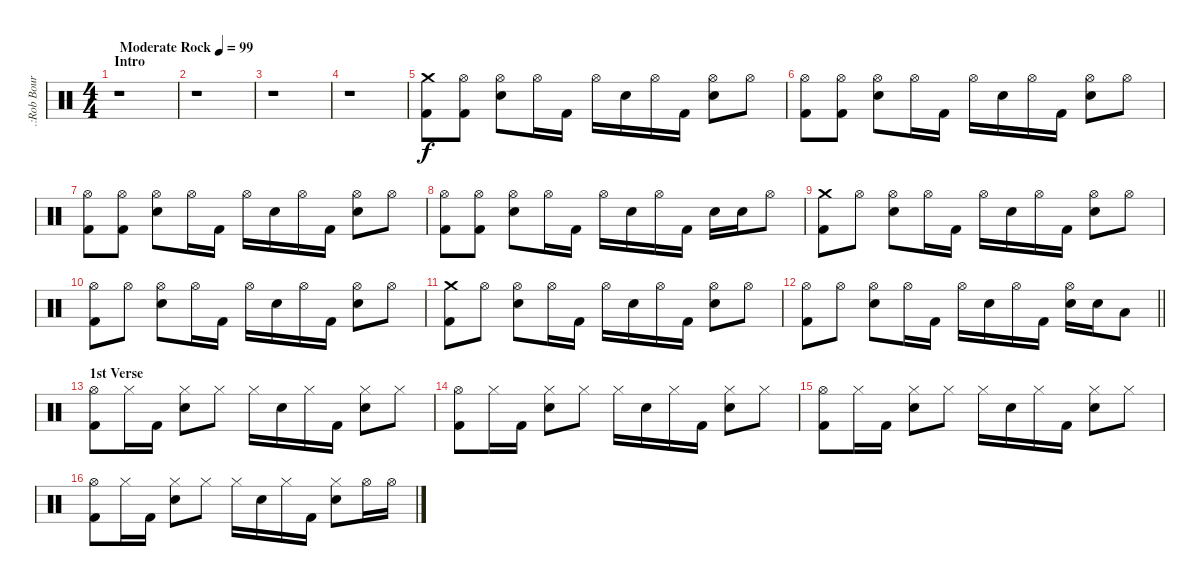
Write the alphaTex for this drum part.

\track (".:Rob Bourdon - Drums:." ".:Rob Bour") {instrument percussion}
\staff {score}
\articulation defaults
\ts (4 4)
\section ("" "Intro")
\tempo (99 "Moderate Rock")
\clef neutral
\ks c
r.1{dy f} |
r.1 |
r.1 |
r.1 |
("Crash medium (hit)" "Kick (hit) 2").8 ("Hi-Hat (open)" "Kick (hit) 2").8 ("Hi-Hat (open)" "Electric Snare (hit)").8 "Hi-Hat (open)".16 "Kick (hit) 2".16 "Hi-Hat (open)".16 "Electric Snare (hit)".16 "Hi-Hat (open)".16 "Kick (hit) 2".16 ("Hi-Hat (open)" "Electric Snare (hit)").8 "Hi-Hat (open)".8 |
("Hi-Hat (open)" "Kick (hit) 2").8 ("Hi-Hat (open)" "Kick (hit) 2").8 ("Hi-Hat (open)" "Electric Snare (hit)").8 "Hi-Hat (open)".16 "Kick (hit) 2".16 "Hi-Hat (open)".16 "Electric Snare (hit)".16 "Hi-Hat (open)".16 "Kick (hit) 2".16 ("Hi-Hat (open)" "Electric Snare (hit)").8 "Hi-Hat (open)".8 |
("Hi-Hat (open)" "Kick (hit) 2").8 ("Hi-Hat (open)" "Kick (hit) 2").8 ("Hi-Hat (open)" "Electric Snare (hit)").8 "Hi-Hat (open)".16 "Kick (hit) 2".16 "Hi-Hat (open)".16 "Electric Snare (hit)".16 "Hi-Hat (open)".16 "Kick (hit) 2".16 ("Hi-Hat (open)" "Electric Snare (hit)").8 "Hi-Hat (open)".8 |
("Hi-Hat (open)" "Kick (hit) 2").8 ("Hi-Hat (open)" "Kick (hit) 2").8 ("Hi-Hat (open)" "Electric Snare (hit)").8 "Hi-Hat (open)".16 "Kick (hit) 2".16 "Hi-Hat (open)".16 "Electric Snare (hit)".16 "Hi-Hat (open)".16 "Kick (hit) 2".16 "Electric Snare (hit)".16 "Electric Snare (hit)".16 "Hi-Hat (open)".8 |
("Crash medium (hit)" "Kick (hit) 2").8 "Hi-Hat (open)".8 ("Hi-Hat (open)" "Electric Snare (hit)").8 "Hi-Hat (open)".16 "Kick (hit) 2".16 "Hi-Hat (open)".16 "Electric Snare (hit)".16 "Hi-Hat (open)".16 "Kick (hit) 2".16 ("Hi-Hat (open)" "Electric Snare (hit)").8 "Hi-Hat (open)".8 |
("Hi-Hat (open)" "Kick (hit) 2").8 "Hi-Hat (open)".8 ("Hi-Hat (open)" "Electric Snare (hit)").8 "Hi-Hat (open)".16 "Kick (hit) 2".16 "Hi-Hat (open)".16 "Electric Snare (hit)".16 "Hi-Hat (open)".16 "Kick (hit) 2".16 ("Hi-Hat (open)" "Electric Snare (hit)").8 "Hi-Hat (open)".8 |
("Crash medium (hit)" "Kick (hit) 2").8 "Hi-Hat (open)".8 ("Hi-Hat (open)" "Electric Snare (hit)").8 "Hi-Hat (open)".16 "Kick (hit) 2".16 "Hi-Hat (open)".16 "Electric Snare (hit)".16 "Hi-Hat (open)".16 "Kick (hit) 2".16 ("Hi-Hat (open)" "Electric Snare (hit)").8 "Hi-Hat (open)".8 |
\barLineRight lightlight
("Hi-Hat (open)" "Kick (hit) 2").8 "Hi-Hat (open)".8 ("Hi-Hat (open)" "Electric Snare (hit)").8 "Hi-Hat (open)".16 "Kick (hit) 2".16 "Hi-Hat (open)".16 "Electric Snare (hit)".16 "Hi-Hat (open)".16 "Kick (hit) 2".16 ("Hi-Hat (open)" "Electric Snare (hit)").16 "Electric Snare (hit)".16 "Low Tom (hit)".8 |
\section ("" "1st Verse")
("Hi-Hat (open)" "Kick (hit) 2").8 "Hi-Hat (closed)".16 "Kick (hit) 2".16 ("Hi-Hat (closed)" "Electric Snare (hit)").8 "Hi-Hat (closed)".8 "Hi-Hat (closed)".16 "Electric Snare (hit)".16 "Hi-Hat (closed)".16 "Kick (hit) 2".16 ("Hi-Hat (closed)" "Electric Snare (hit)").8 "Hi-Hat (closed)".8 |
("Hi-Hat (open)" "Kick (hit) 2").8 "Hi-Hat (closed)".16 "Kick (hit) 2".16 ("Hi-Hat (closed)" "Electric Snare (hit)").8 "Hi-Hat (closed)".8 "Hi-Hat (closed)".16 "Electric Snare (hit)".16 "Hi-Hat (closed)".16 "Kick (hit) 2".16 ("Hi-Hat (closed)" "Electric Snare (hit)").8 "Hi-Hat (closed)".8 |
("Hi-Hat (open)" "Kick (hit) 2").8 "Hi-Hat (closed)".16 "Kick (hit) 2".16 ("Hi-Hat (closed)" "Electric Snare (hit)").8 "Hi-Hat (closed)".8 "Hi-Hat (closed)".16 "Electric Snare (hit)".16 "Hi-Hat (closed)".16 "Kick (hit) 2".16 ("Hi-Hat (closed)" "Electric Snare (hit)").8 "Hi-Hat (closed)".8 |
("Hi-Hat (open)" "Kick (hit) 2").8 "Hi-Hat (closed)".16 "Kick (hit) 2".16 ("Hi-Hat (closed)" "Electric Snare (hit)").8 "Hi-Hat (closed)".8 "Hi-Hat (closed)".16 "Electric Snare (hit)".16 "Hi-Hat (closed)".16 "Kick (hit) 2".16 ("Hi-Hat (closed)" "Electric Snare (hit)").8 "Hi-Hat (open)".16 "Hi-Hat (open)".16
